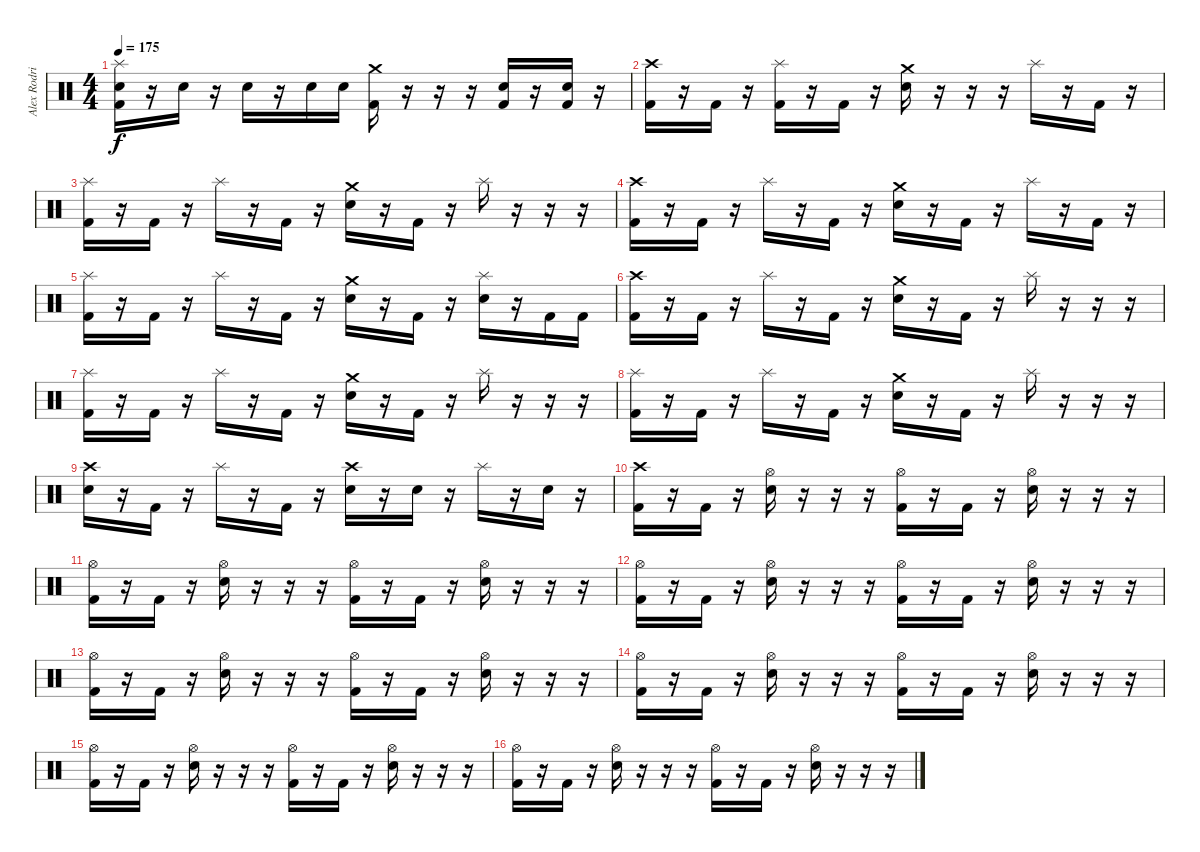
\track ("Alex Rodriguez" "Alex Rodri") {instrument percussion}
\staff {score}
\articulation defaults
\ts (4 4)
\tempo 175
\clef neutral
\ks c
("Splash (hit)" "Electric Snare (hit)" "Kick (hit) 2").16{dy f} r.16 "Electric Snare (hit)".16 r.16 "Electric Snare (hit)".16 r.16 "Electric Snare (hit)".16 "Electric Snare (hit)".16 ("Crash medium (hit)" "Kick (hit) 2").16 r.16 r.16 r.16 ("Electric Snare (hit)" "Kick (hit) 2").16 r.16 ("Electric Snare (hit)" "Kick (hit) 2").16 r.16 |
("Crash high (hit)" "Kick (hit) 2").16 r.16 "Kick (hit) 2".16 r.16 ("Splash (hit)" "Kick (hit) 2").16 r.16 "Kick (hit) 2".16 r.16 ("Crash medium (hit)" "Electric Snare (hit)").16 r.16 r.16 r.16 "Splash (hit)".16 r.16 "Kick (hit) 2".16 r.16 |
("Splash (hit)" "Kick (hit) 2").16 r.16 "Kick (hit) 2".16 r.16 "Splash (hit)".16 r.16 "Kick (hit) 2".16 r.16 ("Crash medium (hit)" "Electric Snare (hit)").16 r.16 "Kick (hit) 2".16 r.16 "Splash (hit)".16 r.16 r.16 r.16 |
("Crash high (hit)" "Kick (hit) 2").16 r.16 "Kick (hit) 2".16 r.16 "Splash (hit)".16 r.16 "Kick (hit) 2".16 r.16 ("Crash medium (hit)" "Electric Snare (hit)").16 r.16 "Kick (hit) 2".16 r.16 "Splash (hit)".16 r.16 "Kick (hit) 2".16 r.16 |
("Splash (hit)" "Kick (hit) 2").16 r.16 "Kick (hit) 2".16 r.16 "Splash (hit)".16 r.16 "Kick (hit) 2".16 r.16 ("Crash medium (hit)" "Electric Snare (hit)").16 r.16 "Kick (hit) 2".16 r.16 ("Splash (hit)" "Electric Snare (hit)").16 r.16 "Kick (hit) 2".16 "Kick (hit) 2".16 |
("Crash high (hit)" "Kick (hit) 2").16 r.16 "Kick (hit) 2".16 r.16 "Splash (hit)".16 r.16 "Kick (hit) 2".16 r.16 ("Crash medium (hit)" "Electric Snare (hit)").16 r.16 "Kick (hit) 2".16 r.16 "Splash (hit)".16 r.16 r.16 r.16 |
("Splash (hit)" "Kick (hit) 2").16 r.16 "Kick (hit) 2".16 r.16 "Splash (hit)".16 r.16 "Kick (hit) 2".16 r.16 ("Crash medium (hit)" "Electric Snare (hit)").16 r.16 "Kick (hit) 2".16 r.16 "Splash (hit)".16 r.16 r.16 r.16 |
("Splash (hit)" "Kick (hit) 2").16 r.16 "Kick (hit) 2".16 r.16 "Splash (hit)".16 r.16 "Kick (hit) 2".16 r.16 ("Crash medium (hit)" "Electric Snare (hit)").16 r.16 "Kick (hit) 2".16 r.16 "Splash (hit)".16 r.16 r.16 r.16 |
("Crash high (hit)" "Electric Snare (hit)").16 r.16 "Kick (hit) 2".16 r.16 "Splash (hit)".16 r.16 "Kick (hit) 2".16 r.16 ("Crash high (hit)" "Electric Snare (hit)").16 r.16 "Electric Snare (hit)".16 r.16 "Splash (hit)".16 r.16 "Electric Snare (hit)".16 r.16 |
("Crash high (hit)" "Kick (hit) 2").16 r.16 "Kick (hit) 2".16 r.16 ("Hi-Hat (open)" "Electric Snare (hit)").16 r.16 r.16 r.16 ("Hi-Hat (open)" "Kick (hit) 2").16 r.16 "Kick (hit) 2".16 r.16 ("Hi-Hat (open)" "Electric Snare (hit)").16 r.16 r.16 r.16 |
("Hi-Hat (open)" "Kick (hit) 2").16 r.16 "Kick (hit) 2".16 r.16 ("Hi-Hat (open)" "Electric Snare (hit)").16 r.16 r.16 r.16 ("Hi-Hat (open)" "Kick (hit) 2").16 r.16 "Kick (hit) 2".16 r.16 ("Hi-Hat (open)" "Electric Snare (hit)").16 r.16 r.16 r.16 |
("Hi-Hat (open)" "Kick (hit) 2").16 r.16 "Kick (hit) 2".16 r.16 ("Hi-Hat (open)" "Electric Snare (hit)").16 r.16 r.16 r.16 ("Hi-Hat (open)" "Kick (hit) 2").16 r.16 "Kick (hit) 2".16 r.16 ("Hi-Hat (open)" "Electric Snare (hit)").16 r.16 r.16 r.16 |
("Hi-Hat (open)" "Kick (hit) 2").16 r.16 "Kick (hit) 2".16 r.16 ("Hi-Hat (open)" "Electric Snare (hit)").16 r.16 r.16 r.16 ("Hi-Hat (open)" "Kick (hit) 2").16 r.16 "Kick (hit) 2".16 r.16 ("Hi-Hat (open)" "Electric Snare (hit)").16 r.16 r.16 r.16 |
("Hi-Hat (open)" "Kick (hit) 2").16 r.16 "Kick (hit) 2".16 r.16 ("Hi-Hat (open)" "Electric Snare (hit)").16 r.16 r.16 r.16 ("Hi-Hat (open)" "Kick (hit) 2").16 r.16 "Kick (hit) 2".16 r.16 ("Hi-Hat (open)" "Electric Snare (hit)").16 r.16 r.16 r.16 |
("Hi-Hat (open)" "Kick (hit) 2").16 r.16 "Kick (hit) 2".16 r.16 ("Hi-Hat (open)" "Electric Snare (hit)").16 r.16 r.16 r.16 ("Hi-Hat (open)" "Kick (hit) 2").16 r.16 "Kick (hit) 2".16 r.16 ("Hi-Hat (open)" "Electric Snare (hit)").16 r.16 r.16 r.16 |
("Hi-Hat (open)" "Kick (hit) 2").16 r.16 "Kick (hit) 2".16 r.16 ("Hi-Hat (open)" "Electric Snare (hit)").16 r.16 r.16 r.16 ("Hi-Hat (open)" "Kick (hit) 2").16 r.16 "Kick (hit) 2".16 r.16 ("Hi-Hat (open)" "Electric Snare (hit)").16 r.16 r.16 r.16
